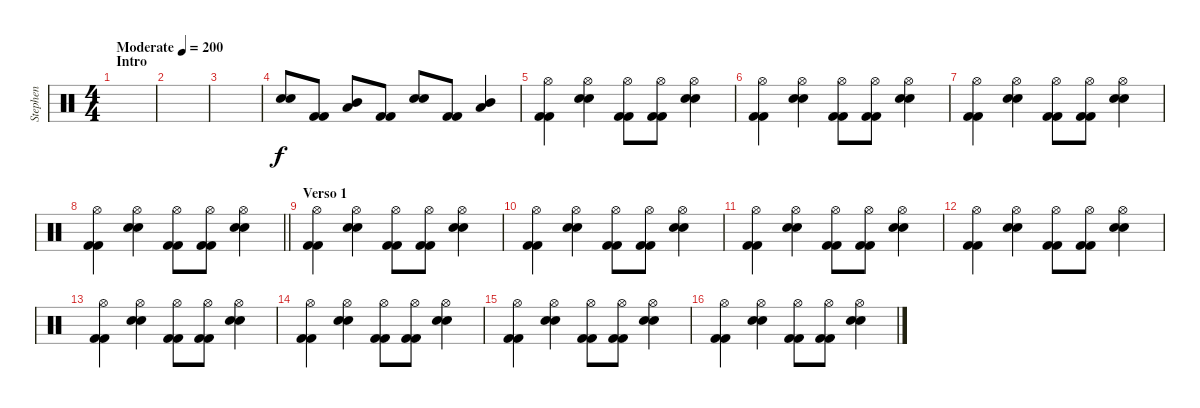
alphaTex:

\track ("Stephen" "Stephen") {instrument percussion}
\staff {score}
\articulation defaults
\ts (4 4)
\section ("" "Intro")
\tempo (200 "Moderate")
\clef neutral
\ks c
|
|
|
("Electric Snare (hit)" "Electric Snare (hit)").8 ("Kick (hit) 2" "Kick (hit) 2").8 ("Low Floor Tom (hit)" "Mid Tom (hit)").8 ("Kick (hit) 2" "Kick (hit) 2").8 ("Electric Snare (hit)" "Electric Snare (hit)").8 ("Kick (hit) 2" "Kick (hit) 2").8 ("Low Floor Tom (hit)" "Mid Tom (hit)").4 |
("Hi-Hat (open)" "Kick (hit) 2" "Kick (hit) 2").4 ("Hi-Hat (open)" "Electric Snare (hit)" "Electric Snare (hit)").4 ("Hi-Hat (open)" "Kick (hit) 2" "Kick (hit) 2").8 ("Hi-Hat (open)" "Kick (hit) 2" "Kick (hit) 2").8 ("Hi-Hat (open)" "Electric Snare (hit)" "Electric Snare (hit)").4 |
("Hi-Hat (open)" "Kick (hit) 2" "Kick (hit) 2").4 ("Hi-Hat (open)" "Electric Snare (hit)" "Electric Snare (hit)").4 ("Hi-Hat (open)" "Kick (hit) 2" "Kick (hit) 2").8 ("Hi-Hat (open)" "Kick (hit) 2" "Kick (hit) 2").8 ("Hi-Hat (open)" "Electric Snare (hit)" "Electric Snare (hit)").4 |
("Hi-Hat (open)" "Kick (hit) 2" "Kick (hit) 2").4 ("Hi-Hat (open)" "Electric Snare (hit)" "Electric Snare (hit)").4 ("Hi-Hat (open)" "Kick (hit) 2" "Kick (hit) 2").8 ("Hi-Hat (open)" "Kick (hit) 2" "Kick (hit) 2").8 ("Hi-Hat (open)" "Electric Snare (hit)" "Electric Snare (hit)").4 |
\barLineRight lightlight
("Hi-Hat (open)" "Kick (hit) 2" "Kick (hit) 2").4 ("Hi-Hat (open)" "Electric Snare (hit)" "Electric Snare (hit)").4 ("Hi-Hat (open)" "Kick (hit) 2" "Kick (hit) 2").8 ("Hi-Hat (open)" "Kick (hit) 2" "Kick (hit) 2").8 ("Hi-Hat (open)" "Electric Snare (hit)" "Electric Snare (hit)").4 |
\section ("" "Verso 1")
("Hi-Hat (open)" "Kick (hit) 2" "Kick (hit) 2").4 ("Hi-Hat (open)" "Electric Snare (hit)" "Electric Snare (hit)").4 ("Hi-Hat (open)" "Kick (hit) 2" "Kick (hit) 2").8 ("Hi-Hat (open)" "Kick (hit) 2" "Kick (hit) 2").8 ("Hi-Hat (open)" "Electric Snare (hit)" "Electric Snare (hit)").4 |
("Hi-Hat (open)" "Kick (hit) 2" "Kick (hit) 2").4 ("Hi-Hat (open)" "Electric Snare (hit)" "Electric Snare (hit)").4 ("Hi-Hat (open)" "Kick (hit) 2" "Kick (hit) 2").8 ("Hi-Hat (open)" "Kick (hit) 2" "Kick (hit) 2").8 ("Hi-Hat (open)" "Electric Snare (hit)" "Electric Snare (hit)").4 |
("Hi-Hat (open)" "Kick (hit) 2" "Kick (hit) 2").4 ("Hi-Hat (open)" "Electric Snare (hit)" "Electric Snare (hit)").4 ("Hi-Hat (open)" "Kick (hit) 2" "Kick (hit) 2").8 ("Hi-Hat (open)" "Kick (hit) 2" "Kick (hit) 2").8 ("Hi-Hat (open)" "Electric Snare (hit)" "Electric Snare (hit)").4 |
("Hi-Hat (open)" "Kick (hit) 2" "Kick (hit) 2").4 ("Hi-Hat (open)" "Electric Snare (hit)" "Electric Snare (hit)").4 ("Hi-Hat (open)" "Kick (hit) 2" "Kick (hit) 2").8 ("Hi-Hat (open)" "Kick (hit) 2" "Kick (hit) 2").8 ("Hi-Hat (open)" "Electric Snare (hit)" "Electric Snare (hit)").4 |
("Hi-Hat (open)" "Kick (hit) 2" "Kick (hit) 2").4 ("Hi-Hat (open)" "Electric Snare (hit)" "Electric Snare (hit)").4 ("Hi-Hat (open)" "Kick (hit) 2" "Kick (hit) 2").8 ("Hi-Hat (open)" "Kick (hit) 2" "Kick (hit) 2").8 ("Hi-Hat (open)" "Electric Snare (hit)" "Electric Snare (hit)").4 |
("Hi-Hat (open)" "Kick (hit) 2" "Kick (hit) 2").4 ("Hi-Hat (open)" "Electric Snare (hit)" "Electric Snare (hit)").4 ("Hi-Hat (open)" "Kick (hit) 2" "Kick (hit) 2").8 ("Hi-Hat (open)" "Kick (hit) 2" "Kick (hit) 2").8 ("Hi-Hat (open)" "Electric Snare (hit)" "Electric Snare (hit)").4 |
("Hi-Hat (open)" "Kick (hit) 2" "Kick (hit) 2").4 ("Hi-Hat (open)" "Electric Snare (hit)" "Electric Snare (hit)").4 ("Hi-Hat (open)" "Kick (hit) 2" "Kick (hit) 2").8 ("Hi-Hat (open)" "Kick (hit) 2" "Kick (hit) 2").8 ("Hi-Hat (open)" "Electric Snare (hit)" "Electric Snare (hit)").4 |
("Hi-Hat (open)" "Kick (hit) 2" "Kick (hit) 2").4 ("Hi-Hat (open)" "Electric Snare (hit)" "Electric Snare (hit)").4 ("Hi-Hat (open)" "Kick (hit) 2" "Kick (hit) 2").8 ("Hi-Hat (open)" "Kick (hit) 2" "Kick (hit) 2").8 ("Hi-Hat (open)" "Electric Snare (hit)" "Electric Snare (hit)").4
